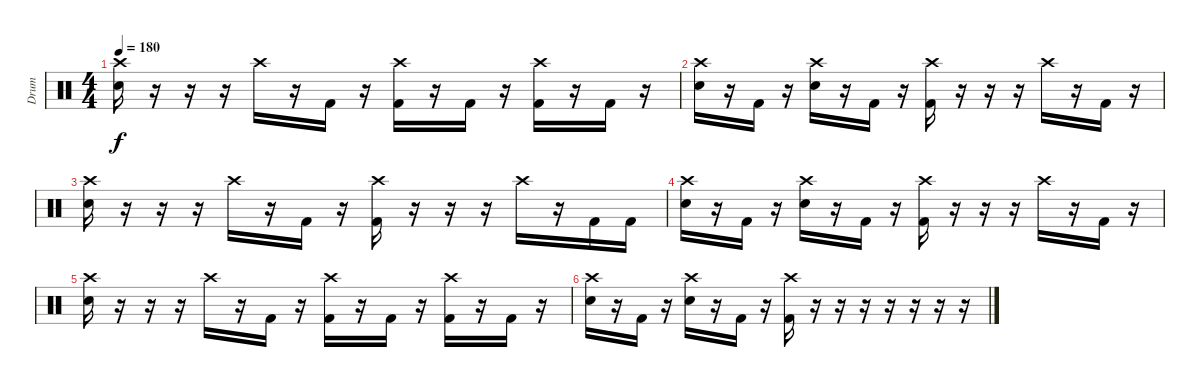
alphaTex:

\track ("Drum" "Drum") {instrument percussion}
\staff {score}
\articulation defaults
\ts (4 4)
\tempo 180
\clef neutral
\ks c
("Crash high (hit)" "Electric Snare (hit)").16{dy f} r.16 r.16 r.16 "Crash high (hit)".16 r.16 "Kick (hit) 2".16 r.16 ("Crash high (hit)" "Kick (hit) 2").16 r.16 "Kick (hit) 2".16 r.16 ("Crash high (hit)" "Kick (hit) 2").16 r.16 "Kick (hit) 2".16 r.16 |
("Crash high (hit)" "Electric Snare (hit)").16 r.16 "Kick (hit) 2".16 r.16 ("Crash high (hit)" "Electric Snare (hit)").16 r.16 "Kick (hit) 2".16 r.16 ("Crash high (hit)" "Kick (hit) 2").16 r.16 r.16 r.16 "Crash high (hit)".16 r.16 "Kick (hit) 2".16 r.16 |
("Crash high (hit)" "Electric Snare (hit)").16 r.16 r.16 r.16 "Crash high (hit)".16 r.16 "Kick (hit) 2".16 r.16 ("Crash high (hit)" "Kick (hit) 2").16 r.16 r.16 r.16 "Crash high (hit)".16 r.16 "Kick (hit) 2".16 "Kick (hit) 2".16 |
("Crash high (hit)" "Electric Snare (hit)").16 r.16 "Kick (hit) 2".16 r.16 ("Crash high (hit)" "Electric Snare (hit)").16 r.16 "Kick (hit) 2".16 r.16 ("Crash high (hit)" "Kick (hit) 2").16 r.16 r.16 r.16 "Crash high (hit)".16 r.16 "Kick (hit) 2".16 r.16 |
("Crash high (hit)" "Electric Snare (hit)").16 r.16 r.16 r.16 "Crash high (hit)".16 r.16 "Kick (hit) 2".16 r.16 ("Crash high (hit)" "Kick (hit) 2").16 r.16 "Kick (hit) 2".16 r.16 ("Crash high (hit)" "Kick (hit) 2").16 r.16 "Kick (hit) 2".16 r.16 |
("Crash high (hit)" "Electric Snare (hit)").16 r.16 "Kick (hit) 2".16 r.16 ("Crash high (hit)" "Electric Snare (hit)").16 r.16 "Kick (hit) 2".16 r.16 ("Crash high (hit)" "Kick (hit) 2").16 r.16 r.16 r.16 r.16 r.16 r.16 r.16
